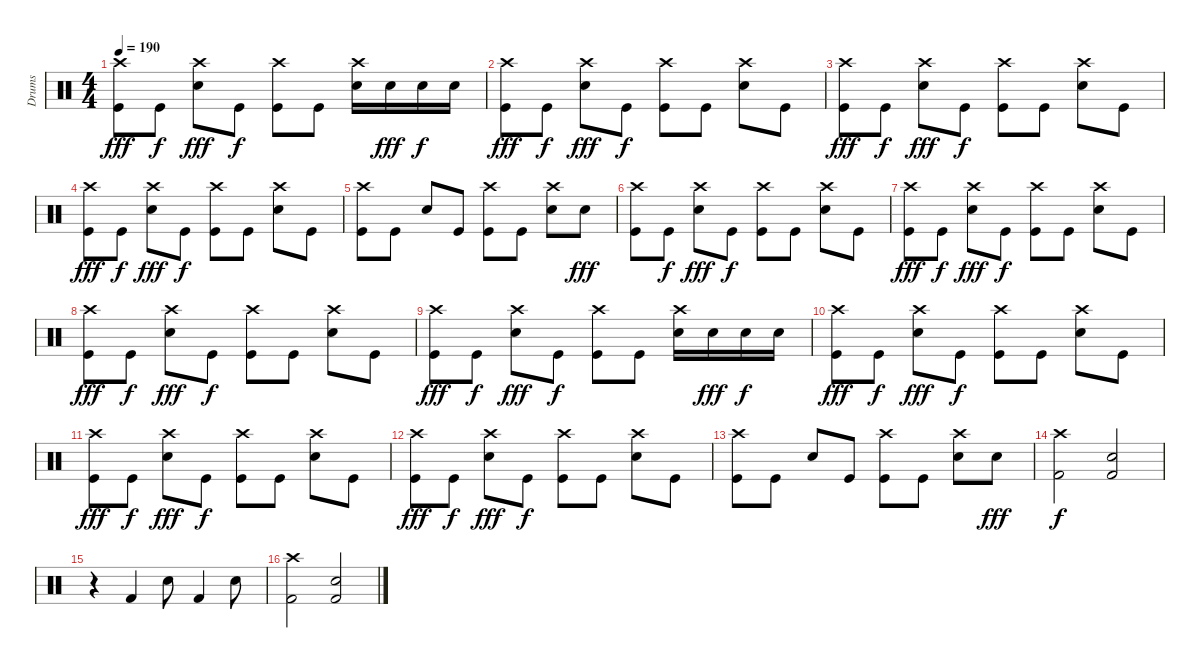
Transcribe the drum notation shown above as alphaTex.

\track ("Drums" "Drums") {instrument percussion}
\staff {score}
\articulation defaults
\ts (4 4)
\tempo 190
\clef neutral
\ks c
("Crash high (hit)" "Kick (hit)").8{dy fff} "Kick (hit)".8{dy f} ("Crash high (hit)" "Snare (hit) 2").8{dy fff} "Kick (hit)".8{dy f} ("Crash high (hit)" "Kick (hit)").8 "Kick (hit)".8 ("Crash high (hit)" "Snare (hit) 2").16 "Snare (hit) 2".16{dy fff} "Snare (hit) 2".16{dy f} "Snare (hit) 2".16 |
("Crash high (hit)" "Kick (hit)").8{dy fff} "Kick (hit)".8{dy f} ("Crash high (hit)" "Snare (hit) 2").8{dy fff} "Kick (hit)".8{dy f} ("Crash high (hit)" "Kick (hit)").8 "Kick (hit)".8 ("Crash high (hit)" "Snare (hit) 2").8 "Kick (hit)".8 |
("Crash high (hit)" "Kick (hit)").8{dy fff} "Kick (hit)".8{dy f} ("Crash high (hit)" "Snare (hit) 2").8{dy fff} "Kick (hit)".8{dy f} ("Crash high (hit)" "Kick (hit)").8 "Kick (hit)".8 ("Crash high (hit)" "Snare (hit) 2").8 "Kick (hit)".8 |
("Crash high (hit)" "Kick (hit)").8{dy fff} "Kick (hit)".8{dy f} ("Crash high (hit)" "Snare (hit) 2").8{dy fff} "Kick (hit)".8{dy f} ("Crash high (hit)" "Kick (hit)").8 "Kick (hit)".8 ("Crash high (hit)" "Snare (hit) 2").8 "Kick (hit)".8 |
("Crash high (hit)" "Kick (hit)").8 "Kick (hit)".8 "Snare (hit) 2".8 "Kick (hit)".8 ("Crash high (hit)" "Kick (hit)").8 "Kick (hit)".8 ("Crash high (hit)" "Snare (hit) 2").8 "Snare (hit) 2".8{dy fff} |
("Crash high (hit)" "Kick (hit)").8 "Kick (hit)".8{dy f} ("Crash high (hit)" "Snare (hit) 2").8{dy fff} "Kick (hit)".8{dy f} ("Crash high (hit)" "Kick (hit)").8 "Kick (hit)".8 ("Crash high (hit)" "Snare (hit) 2").8 "Kick (hit)".8 |
("Crash high (hit)" "Kick (hit)").8{dy fff} "Kick (hit)".8{dy f} ("Crash high (hit)" "Snare (hit) 2").8{dy fff} "Kick (hit)".8{dy f} ("Crash high (hit)" "Kick (hit)").8 "Kick (hit)".8 ("Crash high (hit)" "Snare (hit) 2").8 "Kick (hit)".8 |
("Crash high (hit)" "Kick (hit)").8{dy fff} "Kick (hit)".8{dy f} ("Crash high (hit)" "Snare (hit) 2").8{dy fff} "Kick (hit)".8{dy f} ("Crash high (hit)" "Kick (hit)").8 "Kick (hit)".8 ("Crash high (hit)" "Snare (hit) 2").8 "Kick (hit)".8 |
("Crash high (hit)" "Kick (hit)").8{dy fff} "Kick (hit)".8{dy f} ("Crash high (hit)" "Snare (hit) 2").8{dy fff} "Kick (hit)".8{dy f} ("Crash high (hit)" "Kick (hit)").8 "Kick (hit)".8 ("Crash high (hit)" "Snare (hit) 2").16 "Snare (hit) 2".16{dy fff} "Snare (hit) 2".16{dy f} "Snare (hit) 2".16 |
("Crash high (hit)" "Kick (hit)").8{dy fff} "Kick (hit)".8{dy f} ("Crash high (hit)" "Snare (hit) 2").8{dy fff} "Kick (hit)".8{dy f} ("Crash high (hit)" "Kick (hit)").8 "Kick (hit)".8 ("Crash high (hit)" "Snare (hit) 2").8 "Kick (hit)".8 |
("Crash high (hit)" "Kick (hit)").8{dy fff} "Kick (hit)".8{dy f} ("Crash high (hit)" "Snare (hit) 2").8{dy fff} "Kick (hit)".8{dy f} ("Crash high (hit)" "Kick (hit)").8 "Kick (hit)".8 ("Crash high (hit)" "Snare (hit) 2").8 "Kick (hit)".8 |
("Crash high (hit)" "Kick (hit)").8{dy fff} "Kick (hit)".8{dy f} ("Crash high (hit)" "Snare (hit) 2").8{dy fff} "Kick (hit)".8{dy f} ("Crash high (hit)" "Kick (hit)").8 "Kick (hit)".8 ("Crash high (hit)" "Snare (hit) 2").8 "Kick (hit)".8 |
("Crash high (hit)" "Kick (hit)").8 "Kick (hit)".8 "Snare (hit) 2".8 "Kick (hit)".8 ("Crash high (hit)" "Kick (hit)").8 "Kick (hit)".8 ("Crash high (hit)" "Snare (hit) 2").8 "Snare (hit) 2".8{dy fff} |
("Crash high (hit)" "Kick (hit) 2").2{dy f} ("Snare (hit) 2" "Kick (hit) 2").2 |
r.4 "Kick (hit) 2".4 "Snare (hit) 2".8 "Kick (hit) 2".4 "Snare (hit) 2".8 |
("Crash high (hit)" "Kick (hit) 2").2 ("Snare (hit) 2" "Kick (hit) 2").2
